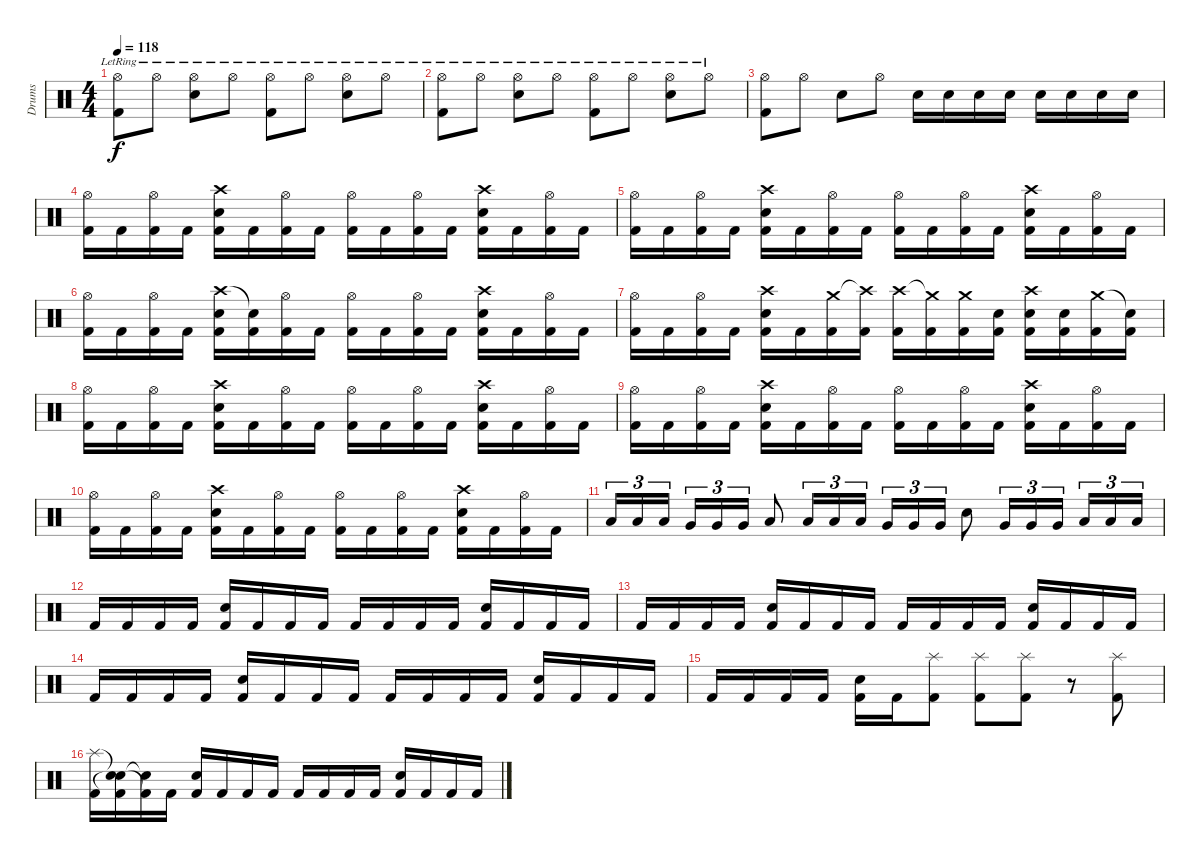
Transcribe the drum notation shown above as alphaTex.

\track ("Drums" "Drums") {instrument percussion}
\staff {score}
\articulation defaults
\ts (4 4)
\tempo 118
\clef neutral
\ks c
("Kick (hit) 2" "Hi-Hat (open)"{lr}).8{dy f} "Hi-Hat (open)"{lr}.8 ("Hi-Hat (open)"{lr} "Snare (hit) 2").8 "Hi-Hat (open)"{lr}.8 ("Hi-Hat (open)"{lr} "Kick (hit) 2").8 "Hi-Hat (open)"{lr}.8 ("Hi-Hat (open)"{lr} "Snare (hit) 2").8 "Hi-Hat (open)"{lr}.8 |
("Kick (hit) 2" "Hi-Hat (open)"{lr}).8 "Hi-Hat (open)"{lr}.8 ("Hi-Hat (open)"{lr} "Snare (hit) 2").8 "Hi-Hat (open)"{lr}.8 ("Hi-Hat (open)"{lr} "Kick (hit) 2").8 "Hi-Hat (open)"{lr}.8 ("Hi-Hat (open)"{lr} "Snare (hit) 2").8 "Hi-Hat (open)"{lr}.8 |
("Hi-Hat (open)" "Kick (hit) 2").8 "Hi-Hat (open)".8 "Snare (hit) 2".8 "Hi-Hat (open)".8 "Snare (hit) 2".16 "Snare (hit) 2".16 "Snare (hit) 2".16 "Snare (hit) 2".16 "Snare (hit) 2".16 "Snare (hit) 2".16 "Snare (hit) 2".16 "Snare (hit) 2".16 |
("Hi-Hat (open)" "Kick (hit) 2").16 "Kick (hit) 2".16 ("Hi-Hat (open)" "Kick (hit) 2").16 "Kick (hit) 2".16 ("Crash high (hit)" "Snare (hit) 2" "Kick (hit) 2").16 "Kick (hit) 2".16 ("Hi-Hat (open)" "Kick (hit) 2").16 "Kick (hit) 2".16 ("Hi-Hat (open)" "Kick (hit) 2").16 "Kick (hit) 2".16 ("Hi-Hat (open)" "Kick (hit) 2").16 "Kick (hit) 2".16 ("Crash high (hit)" "Snare (hit) 2" "Kick (hit) 2").16 "Kick (hit) 2".16 ("Hi-Hat (open)" "Kick (hit) 2").16 "Kick (hit) 2".16 |
("Hi-Hat (open)" "Kick (hit) 2").16 "Kick (hit) 2".16 ("Hi-Hat (open)" "Kick (hit) 2").16 "Kick (hit) 2".16 ("Crash high (hit)" "Snare (hit) 2" "Kick (hit) 2").16 "Kick (hit) 2".16 ("Hi-Hat (open)" "Kick (hit) 2").16 "Kick (hit) 2".16 ("Hi-Hat (open)" "Kick (hit) 2").16 "Kick (hit) 2".16 ("Hi-Hat (open)" "Kick (hit) 2").16 "Kick (hit) 2".16 ("Crash high (hit)" "Snare (hit) 2" "Kick (hit) 2").16 "Kick (hit) 2".16 ("Hi-Hat (open)" "Kick (hit) 2").16 "Kick (hit) 2".16 |
("Hi-Hat (open)" "Kick (hit) 2").16 "Kick (hit) 2".16 ("Hi-Hat (open)" "Kick (hit) 2").16 "Kick (hit) 2".16 ("Crash high (hit)" "Snare (hit) 2" "Kick (hit) 2").16 ("Snare (hit)"{t} "Kick (hit) 2").16 ("Hi-Hat (open)" "Kick (hit) 2").16 "Kick (hit) 2".16 ("Hi-Hat (open)" "Kick (hit) 2").16 "Kick (hit) 2".16 ("Hi-Hat (open)" "Kick (hit) 2").16 "Kick (hit) 2".16 ("Crash high (hit)" "Snare (hit) 2" "Kick (hit) 2").16 "Kick (hit) 2".16 ("Hi-Hat (open)" "Kick (hit) 2").16 "Kick (hit) 2".16 |
("Hi-Hat (open)" "Kick (hit) 2").16 "Kick (hit) 2".16 ("Hi-Hat (open)" "Kick (hit) 2").16 "Kick (hit) 2".16 ("Crash high (hit)" "Snare (hit) 2" "Kick (hit) 2").16 "Kick (hit) 2".16 ("Crash medium (hit)" "Kick (hit) 2").16 ("Crash high (hit)"{t} "Kick (hit) 2").16 ("Crash high (hit)" "Kick (hit) 2").16 ("Crash medium (hit)"{t} "Kick (hit) 2").16 ("Crash medium (hit)" "Kick (hit) 2").16 ("Snare (hit) 2" "Kick (hit) 2").16 ("Crash high (hit)" "Snare (hit) 2" "Kick (hit) 2").16 ("Snare (hit) 2" "Kick (hit) 2").16 ("Crash medium (hit)" "Kick (hit) 2").16 ("Snare (hit)"{t} "Kick (hit) 2").16 |
("Hi-Hat (open)" "Kick (hit) 2").16 "Kick (hit) 2".16 ("Hi-Hat (open)" "Kick (hit) 2").16 "Kick (hit) 2".16 ("Crash high (hit)" "Snare (hit) 2" "Kick (hit) 2").16 "Kick (hit) 2".16 ("Hi-Hat (open)" "Kick (hit) 2").16 "Kick (hit) 2".16 ("Hi-Hat (open)" "Kick (hit) 2").16 "Kick (hit) 2".16 ("Hi-Hat (open)" "Kick (hit) 2").16 "Kick (hit) 2".16 ("Crash high (hit)" "Snare (hit) 2" "Kick (hit) 2").16 "Kick (hit) 2".16 ("Hi-Hat (open)" "Kick (hit) 2").16 "Kick (hit) 2".16 |
("Hi-Hat (open)" "Kick (hit) 2").16 "Kick (hit) 2".16 ("Hi-Hat (open)" "Kick (hit) 2").16 "Kick (hit) 2".16 ("Crash high (hit)" "Snare (hit) 2" "Kick (hit) 2").16 "Kick (hit) 2".16 ("Hi-Hat (open)" "Kick (hit) 2").16 "Kick (hit) 2".16 ("Hi-Hat (open)" "Kick (hit) 2").16 "Kick (hit) 2".16 ("Hi-Hat (open)" "Kick (hit) 2").16 "Kick (hit) 2".16 ("Crash high (hit)" "Snare (hit) 2" "Kick (hit) 2").16 "Kick (hit) 2".16 ("Hi-Hat (open)" "Kick (hit) 2").16 "Kick (hit) 2".16 |
("Hi-Hat (open)" "Kick (hit) 2").16 "Kick (hit) 2".16 ("Hi-Hat (open)" "Kick (hit) 2").16 "Kick (hit) 2".16 ("Crash high (hit)" "Snare (hit) 2" "Kick (hit) 2").16 "Kick (hit) 2".16 ("Hi-Hat (open)" "Kick (hit) 2").16 "Kick (hit) 2".16 ("Hi-Hat (open)" "Kick (hit) 2").16 "Kick (hit) 2".16 ("Hi-Hat (open)" "Kick (hit) 2").16 "Kick (hit) 2".16 ("Crash high (hit)" "Snare (hit) 2" "Kick (hit) 2").16 "Kick (hit) 2".16 ("Hi-Hat (open)" "Kick (hit) 2").16 "Kick (hit) 2".16 |
"Low Floor Tom (hit)".16{tu (3 2)} "Low Floor Tom (hit)".16{tu (3 2)} "Low Floor Tom (hit)".16{tu (3 2)} "Very Low Tom (hit)".16{tu (3 2)} "Very Low Tom (hit)".16{tu (3 2)} "Very Low Tom (hit)".16{tu (3 2)} "Low Tom (hit)".8 "Low Floor Tom (hit)".16{tu (3 2)} "Low Floor Tom (hit)".16{tu (3 2)} "Low Floor Tom (hit)".16{tu (3 2)} "Very Low Tom (hit)".16{tu (3 2)} "Very Low Tom (hit)".16{tu (3 2)} "Very Low Tom (hit)".16{tu (3 2)} "Snare (hit) 2".8 "Very Low Tom (hit)".16{tu (3 2)} "Very Low Tom (hit)".16{tu (3 2)} "Very Low Tom (hit)".16{tu (3 2)} "Low Floor Tom (hit)".16{tu (3 2)} "Low Floor Tom (hit)".16{tu (3 2)} "Low Floor Tom (hit)".16{tu (3 2)} |
"Kick (hit) 2".16 "Kick (hit) 2".16 "Kick (hit) 2".16 "Kick (hit) 2".16 ("Snare (hit) 2" "Kick (hit) 2").16 "Kick (hit) 2".16 "Kick (hit) 2".16 "Kick (hit) 2".16 "Kick (hit) 2".16 "Kick (hit) 2".16 "Kick (hit) 2".16 "Kick (hit) 2".16 ("Snare (hit) 2" "Kick (hit) 2").16 "Kick (hit) 2".16 "Kick (hit) 2".16 "Kick (hit) 2".16 |
"Kick (hit) 2".16 "Kick (hit) 2".16 "Kick (hit) 2".16 "Kick (hit) 2".16 ("Snare (hit) 2" "Kick (hit) 2").16 "Kick (hit) 2".16 "Kick (hit) 2".16 "Kick (hit) 2".16 "Kick (hit) 2".16 "Kick (hit) 2".16 "Kick (hit) 2".16 "Kick (hit) 2".16 ("Snare (hit) 2" "Kick (hit) 2").16 "Kick (hit) 2".16 "Kick (hit) 2".16 "Kick (hit) 2".16 |
"Kick (hit) 2".16 "Kick (hit) 2".16 "Kick (hit) 2".16 "Kick (hit) 2".16 ("Snare (hit) 2" "Kick (hit) 2").16 "Kick (hit) 2".16 "Kick (hit) 2".16 "Kick (hit) 2".16 "Kick (hit) 2".16 "Kick (hit) 2".16 "Kick (hit) 2".16 "Kick (hit) 2".16 ("Snare (hit) 2" "Kick (hit) 2").16 "Kick (hit) 2".16 "Kick (hit) 2".16 "Kick (hit) 2".16 |
"Kick (hit) 2".16 "Kick (hit) 2".16 "Kick (hit) 2".16 "Kick (hit) 2".16 ("Snare (hit) 2" "Kick (hit) 2").16 "Kick (hit) 2".16 ("Splash (hit)" "Kick (hit) 2").8 ("Splash (hit)" "Kick (hit) 2").8 ("Splash (hit)" "Kick (hit) 2").8 r.8 ("Splash (hit)" "Kick (hit) 2").8 |
("Splash (hit)" "Kick (hit) 2").16 ("Snare (hit)"{t} "Snare (hit)"{t} "Kick (hit) 2").16 ("Snare (hit)"{t} "Kick (hit) 2"{t}).16 "Kick (hit) 2".16 ("Snare (hit) 2" "Kick (hit) 2").16 "Kick (hit) 2".16 "Kick (hit) 2".16 "Kick (hit) 2".16 "Kick (hit) 2".16 "Kick (hit) 2".16 "Kick (hit) 2".16 "Kick (hit) 2".16 ("Snare (hit) 2" "Kick (hit) 2").16 "Kick (hit) 2".16 "Kick (hit) 2".16 "Kick (hit) 2".16
